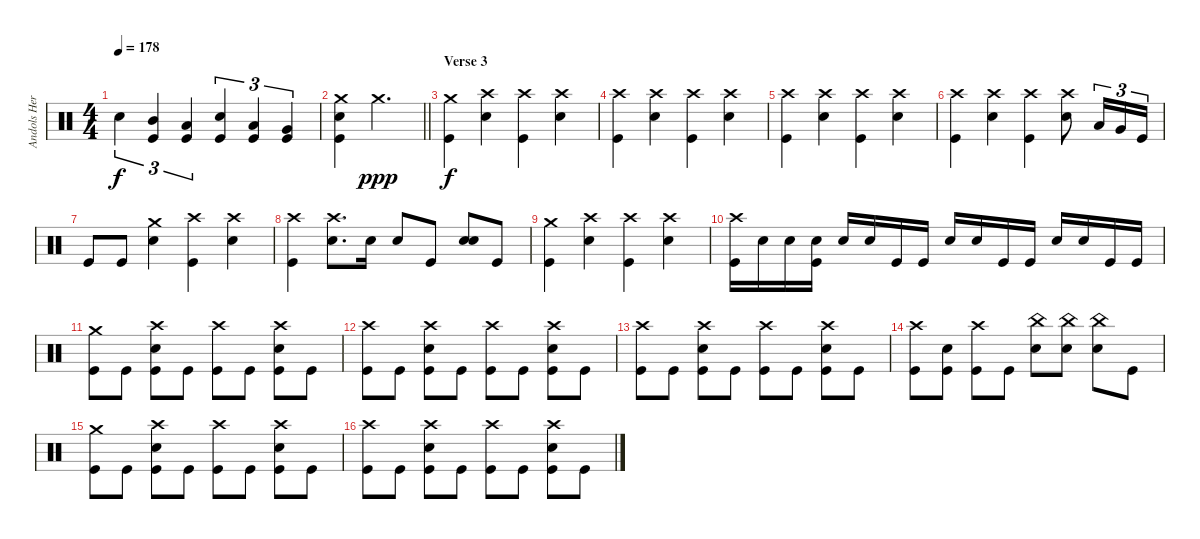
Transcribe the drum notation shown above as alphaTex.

\track ("Andols Herrick" "Andols Her") {instrument percussion}
\staff {score}
\articulation defaults
\ts (4 4)
\tempo 178
\clef neutral
\ks c "Electric Snare (hit)".4{tu (3 2) dy f}
("Mid Tom (hit)" "Kick (hit)").4{tu (3 2)} ("Low Tom (hit)" "Kick (hit)").4{tu (3 2)} ("Electric Snare (hit)" "Kick (hit)").4{tu (3 2)} ("Low Tom (hit)" "Kick (hit)").4{tu (3 2)} ("Very Low Tom (hit)" "Kick (hit)").4{tu (3 2)} |
\barLineRight lightlight
("Crash medium (hit)" "Electric Snare (hit)" "Kick (hit)").4 "Crash medium (hit)".2{d dy ppp} |
\section ("" "Verse 3")
("Crash medium (hit)" "Kick (hit)").4{dy f} ("Crash high (hit)" "Electric Snare (hit)").4 ("Crash high (hit)" "Kick (hit)").4 ("Crash high (hit)" "Electric Snare (hit)").4 |
("Crash high (hit)" "Kick (hit)").4 ("Crash high (hit)" "Electric Snare (hit)").4 ("Crash high (hit)" "Kick (hit)").4 ("Crash high (hit)" "Electric Snare (hit)").4 |
("Crash high (hit)" "Kick (hit)").4 ("Crash high (hit)" "Electric Snare (hit)").4 ("Crash high (hit)" "Kick (hit)").4 ("Crash high (hit)" "Electric Snare (hit)").4 |
("Crash high (hit)" "Kick (hit)").4 ("Crash high (hit)" "Electric Snare (hit)").4 ("Crash high (hit)" "Kick (hit)").4 ("Crash high (hit)" "Electric Snare (hit)").8 "Low Tom (hit)".16{tu (3 2)} "Very Low Tom (hit)".16{tu (3 2)} "Kick (hit)".16{tu (3 2)} |
"Kick (hit)".8 "Kick (hit)".8 ("Crash medium (hit)" "Electric Snare (hit)").4 ("Crash high (hit)" "Kick (hit)").4 ("Crash high (hit)" "Electric Snare (hit)").4 |
("Crash high (hit)" "Kick (hit)").4 ("Crash high (hit)" "Electric Snare (hit)").8{d} "Electric Snare (hit)".16 "Electric Snare (hit)".8 "Kick (hit)".8 ("Electric Snare (hit)" "Electric Snare (hit)").8 "Kick (hit)".8 |
("Crash medium (hit)" "Kick (hit)").4 ("Crash high (hit)" "Electric Snare (hit)").4 ("Crash high (hit)" "Kick (hit)").4 ("Crash high (hit)" "Electric Snare (hit)").4 |
("Crash high (hit)" "Kick (hit)").16 "Electric Snare (hit)".16 "Electric Snare (hit)".16 ("Electric Snare (hit)" "Kick (hit)").16 "Electric Snare (hit)".16 "Electric Snare (hit)".16 "Kick (hit)".16 "Kick (hit)".16 "Electric Snare (hit)".16 "Electric Snare (hit)".16 "Kick (hit)".16 "Kick (hit)".16 "Electric Snare (hit)".16 "Electric Snare (hit)".16 "Kick (hit)".16 "Kick (hit)".16 |
("Crash medium (hit)" "Kick (hit)").8 "Kick (hit)".8 ("Crash high (hit)" "Electric Snare (hit)" "Kick (hit)").8 "Kick (hit)".8 ("Crash high (hit)" "Kick (hit)").8 "Kick (hit)".8 ("Crash high (hit)" "Electric Snare (hit)" "Kick (hit)").8 "Kick (hit)".8 |
("Crash high (hit)" "Kick (hit)").8 "Kick (hit)".8 ("Crash high (hit)" "Electric Snare (hit)" "Kick (hit)").8 "Kick (hit)".8 ("Crash high (hit)" "Kick (hit)").8 "Kick (hit)".8 ("Crash high (hit)" "Electric Snare (hit)" "Kick (hit)").8 "Kick (hit)".8 |
("Crash high (hit)" "Kick (hit)").8 "Kick (hit)".8 ("Crash high (hit)" "Electric Snare (hit)" "Kick (hit)").8 "Kick (hit)".8 ("Crash high (hit)" "Kick (hit)").8 "Kick (hit)".8 ("Crash high (hit)" "Electric Snare (hit)" "Kick (hit)").8 "Kick (hit)".8 |
("Crash high (hit)" "Kick (hit)").8 ("Electric Snare (hit)" "Kick (hit)").8 ("Crash high (hit)" "Kick (hit)").8 "Kick (hit)".8 ("China (hit)" "Electric Snare (hit)").8 ("China (hit)" "Electric Snare (hit)").8 ("China (hit)" "Electric Snare (hit)").8 "Kick (hit)".8 |
("Crash medium (hit)" "Kick (hit)").8 "Kick (hit)".8 ("Crash high (hit)" "Electric Snare (hit)" "Kick (hit)").8 "Kick (hit)".8 ("Crash high (hit)" "Kick (hit)").8 "Kick (hit)".8 ("Crash high (hit)" "Electric Snare (hit)" "Kick (hit)").8 "Kick (hit)".8 |
("Crash high (hit)" "Kick (hit)").8 "Kick (hit)".8 ("Crash high (hit)" "Electric Snare (hit)" "Kick (hit)").8 "Kick (hit)".8 ("Crash high (hit)" "Kick (hit)").8 "Kick (hit)".8 ("Crash high (hit)" "Electric Snare (hit)" "Kick (hit)").8 "Kick (hit)".8
